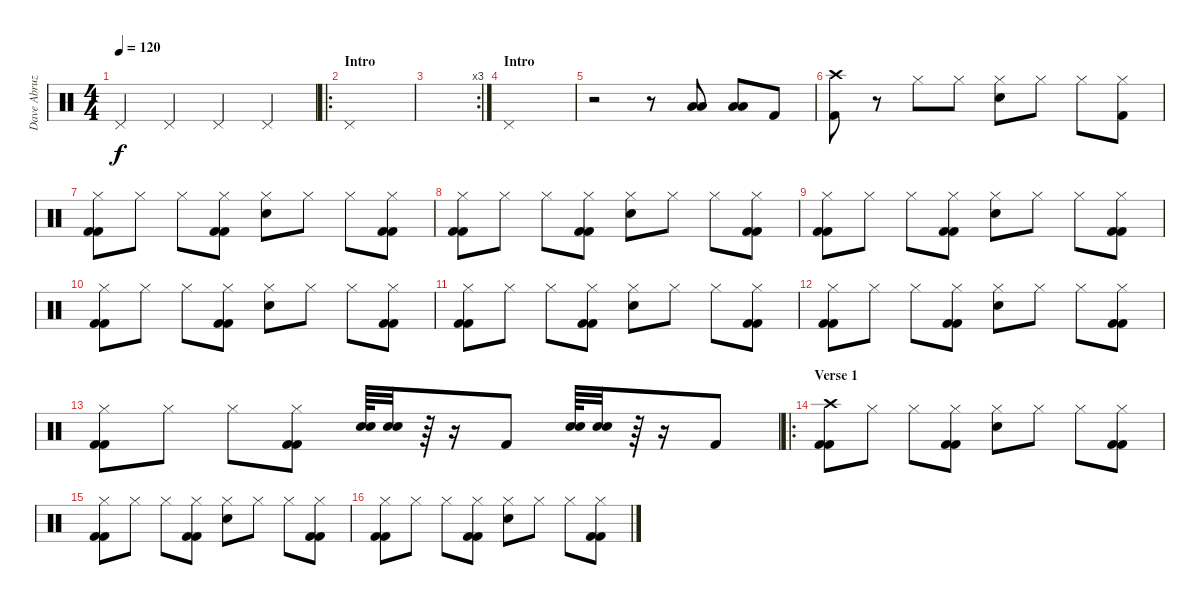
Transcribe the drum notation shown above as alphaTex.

\track ("Dave Abruzzese" "Dave Abruz") {instrument percussion}
\staff {score}
\articulation defaults
\ts (4 4)
\tempo 120
\clef neutral
\ks c "Pedal Hi-Hat (hit)".4{dy f} "Pedal Hi-Hat (hit)".4 "Pedal Hi-Hat (hit)".4 "Pedal Hi-Hat (hit)".4
|
\ro
\section ("" "Intro")
"Pedal Hi-Hat (hit)".1 |
\rc 3
|
\section ("" "Intro")
"Pedal Hi-Hat (hit)".1 |
r.2 r.8 ("Low Tom (hit)" "Low Tom (hit)").8 ("Low Tom (hit)" "Low Tom (hit)").8 "Kick (hit) 2".8 |
("Crash high (hit)" "Kick (hit) 2").8 r.8 "Hi-Hat (closed)".8 "Hi-Hat (closed)".8 ("Hi-Hat (closed)" "Electric Snare (hit)").8 "Hi-Hat (closed)".8 "Hi-Hat (closed)".8 ("Hi-Hat (closed)" "Kick (hit) 2").8 |
("Hi-Hat (closed)" "Kick (hit) 2" "Kick (hit) 2").8 "Hi-Hat (closed)".8 "Hi-Hat (closed)".8 ("Hi-Hat (closed)" "Kick (hit) 2" "Kick (hit) 2").8 ("Hi-Hat (closed)" "Electric Snare (hit)").8 "Hi-Hat (closed)".8 "Hi-Hat (closed)".8 ("Hi-Hat (closed)" "Kick (hit) 2" "Kick (hit) 2").8 |
("Hi-Hat (closed)" "Kick (hit) 2" "Kick (hit) 2").8 "Hi-Hat (closed)".8 "Hi-Hat (closed)".8 ("Hi-Hat (closed)" "Kick (hit) 2" "Kick (hit) 2").8 ("Hi-Hat (closed)" "Electric Snare (hit)").8 "Hi-Hat (closed)".8 "Hi-Hat (closed)".8 ("Hi-Hat (closed)" "Kick (hit) 2" "Kick (hit) 2").8 |
("Hi-Hat (closed)" "Kick (hit) 2" "Kick (hit) 2").8 "Hi-Hat (closed)".8 "Hi-Hat (closed)".8 ("Hi-Hat (closed)" "Kick (hit) 2" "Kick (hit) 2").8 ("Hi-Hat (closed)" "Electric Snare (hit)").8 "Hi-Hat (closed)".8 "Hi-Hat (closed)".8 ("Hi-Hat (closed)" "Kick (hit) 2" "Kick (hit) 2").8 |
("Hi-Hat (closed)" "Kick (hit) 2" "Kick (hit) 2").8 "Hi-Hat (closed)".8 "Hi-Hat (closed)".8 ("Hi-Hat (closed)" "Kick (hit) 2" "Kick (hit) 2").8 ("Hi-Hat (closed)" "Electric Snare (hit)").8 "Hi-Hat (closed)".8 "Hi-Hat (closed)".8 ("Hi-Hat (closed)" "Kick (hit) 2" "Kick (hit) 2").8 |
("Hi-Hat (closed)" "Kick (hit) 2" "Kick (hit) 2").8 "Hi-Hat (closed)".8 "Hi-Hat (closed)".8 ("Hi-Hat (closed)" "Kick (hit) 2" "Kick (hit) 2").8 ("Hi-Hat (closed)" "Electric Snare (hit)").8 "Hi-Hat (closed)".8 "Hi-Hat (closed)".8 ("Hi-Hat (closed)" "Kick (hit) 2" "Kick (hit) 2").8 |
("Hi-Hat (closed)" "Kick (hit) 2" "Kick (hit) 2").8 "Hi-Hat (closed)".8 "Hi-Hat (closed)".8 ("Hi-Hat (closed)" "Kick (hit) 2" "Kick (hit) 2").8 ("Hi-Hat (closed)" "Electric Snare (hit)").8 "Hi-Hat (closed)".8 "Hi-Hat (closed)".8 ("Hi-Hat (closed)" "Kick (hit) 2" "Kick (hit) 2").8 |
("Hi-Hat (closed)" "Kick (hit) 2" "Kick (hit) 2").8 "Hi-Hat (closed)".8 "Hi-Hat (closed)".8 ("Hi-Hat (closed)" "Kick (hit) 2" "Kick (hit) 2").8 ("Electric Snare (hit)" "Electric Snare (hit)").64 ("Electric Snare (hit)" "Electric Snare (hit)").32 r.64 r.16 "Kick (hit) 2".8 ("Electric Snare (hit)" "Electric Snare (hit)").64 ("Electric Snare (hit)" "Electric Snare (hit)").32 r.64 r.16 "Kick (hit) 2".8 |
\ro
\section ("" "Verse 1")
("Crash high (hit)" "Kick (hit) 2" "Kick (hit) 2").8 "Hi-Hat (closed)".8 "Hi-Hat (closed)".8 ("Hi-Hat (closed)" "Kick (hit) 2" "Kick (hit) 2").8 ("Hi-Hat (closed)" "Electric Snare (hit)").8 "Hi-Hat (closed)".8 "Hi-Hat (closed)".8 ("Hi-Hat (closed)" "Kick (hit) 2" "Kick (hit) 2").8 |
("Hi-Hat (closed)" "Kick (hit) 2" "Kick (hit) 2").8 "Hi-Hat (closed)".8 "Hi-Hat (closed)".8 ("Hi-Hat (closed)" "Kick (hit) 2" "Kick (hit) 2").8 ("Hi-Hat (closed)" "Electric Snare (hit)").8 "Hi-Hat (closed)".8 "Hi-Hat (closed)".8 ("Hi-Hat (closed)" "Kick (hit) 2" "Kick (hit) 2").8 |
("Hi-Hat (closed)" "Kick (hit) 2" "Kick (hit) 2").8 "Hi-Hat (closed)".8 "Hi-Hat (closed)".8 ("Hi-Hat (closed)" "Kick (hit) 2" "Kick (hit) 2").8 ("Hi-Hat (closed)" "Electric Snare (hit)").8 "Hi-Hat (closed)".8 "Hi-Hat (closed)".8 ("Hi-Hat (closed)" "Kick (hit) 2" "Kick (hit) 2").8
